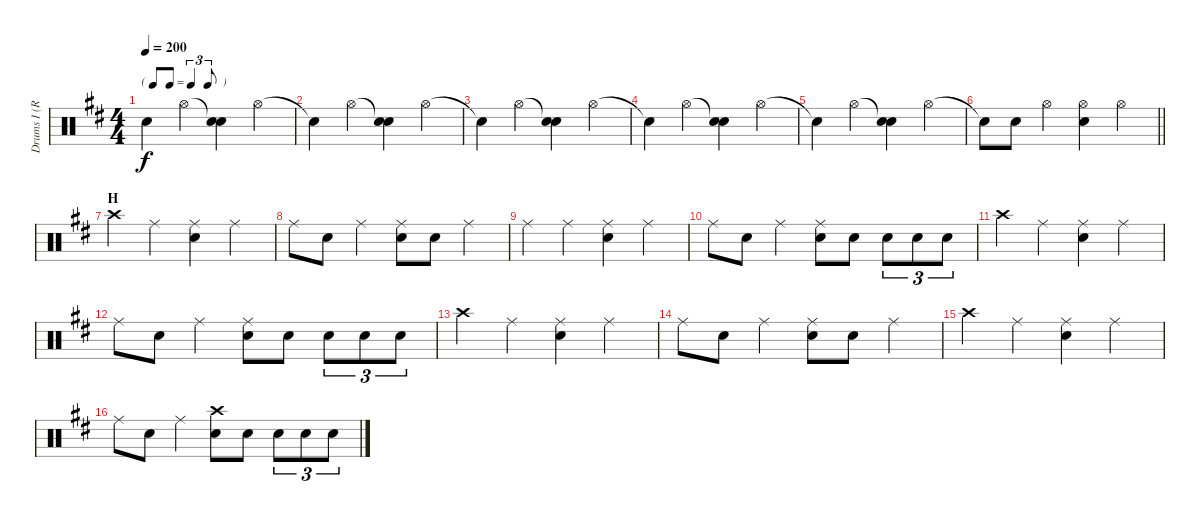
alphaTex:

\track ("Drums I (Ruka)" "Drums I (R") {instrument percussion}
\staff {score}
\articulation defaults
\ts (4 4)
\tf triplet8th
\tempo 200
\clef neutral
\ks d "Snare (hit)"{t}.4{dy f} "Hi-Hat (open)".4
("Snare (hit)"{t} "Snare (hit) 2").4 "Hi-Hat (open)".4 |
"Snare (hit)"{t}.4 "Hi-Hat (open)".4 ("Snare (hit)"{t} "Snare (hit) 2").4 "Hi-Hat (open)".4 |
"Snare (hit)"{t}.4 "Hi-Hat (open)".4 ("Snare (hit)"{t} "Snare (hit) 2").4 "Hi-Hat (open)".4 |
"Snare (hit)"{t}.4 "Hi-Hat (open)".4 ("Snare (hit)"{t} "Snare (hit) 2").4 "Hi-Hat (open)".4 |
"Snare (hit)"{t}.4 "Hi-Hat (open)".4 ("Snare (hit)"{t} "Snare (hit) 2").4 "Hi-Hat (open)".4 |
\barLineRight lightlight "Snare (hit)"{t}.8 "Snare (hit) 2".8 "Hi-Hat (open)".4
("Hi-Hat (open)" "Snare (hit) 2").4 "Hi-Hat (open)".4 |
\section ("" "H")
"Crash high (hit)".4 "Ride (middle)".4 ("Ride (middle)" "Snare (hit) 2").4 "Ride (middle)".4 |
"Ride (middle)".8 "Snare (hit) 2".8 "Ride (middle)".4 ("Ride (middle)" "Snare (hit) 2").8 "Snare (hit) 2".8 "Ride (middle)".4 |
"Ride (middle)".4 "Ride (middle)".4 ("Ride (middle)" "Snare (hit) 2").4 "Ride (middle)".4 |
"Ride (middle)".8 "Snare (hit) 2".8 "Ride (middle)".4 ("Ride (middle)" "Snare (hit) 2").8 "Snare (hit) 2".8 "Snare (hit) 2".8{tu (3 2)} "Snare (hit) 2".8{tu (3 2)} "Snare (hit) 2".8{tu (3 2)} |
"Crash high (hit)".4 "Ride (middle)".4 ("Ride (middle)" "Snare (hit) 2").4 "Ride (middle)".4 |
"Ride (middle)".8 "Snare (hit) 2".8 "Ride (middle)".4 ("Ride (middle)" "Snare (hit) 2").8 "Snare (hit) 2".8 "Snare (hit) 2".8{tu (3 2)} "Snare (hit) 2".8{tu (3 2)} "Snare (hit) 2".8{tu (3 2)} |
"Crash high (hit)".4 "Ride (middle)".4 ("Ride (middle)" "Snare (hit) 2").4 "Ride (middle)".4 |
"Ride (middle)".8 "Snare (hit) 2".8 "Ride (middle)".4 ("Ride (middle)" "Snare (hit) 2").8 "Snare (hit) 2".8 "Ride (middle)".4 |
"Crash high (hit)".4 "Ride (middle)".4 ("Ride (middle)" "Snare (hit) 2").4 "Ride (middle)".4 |
"Ride (middle)".8 "Snare (hit) 2".8 "Ride (middle)".4 ("Crash high (hit)" "Snare (hit) 2").8 "Snare (hit) 2".8 "Snare (hit) 2".8{tu (3 2)} "Snare (hit) 2".8{tu (3 2)} "Snare (hit) 2".8{tu (3 2)}
